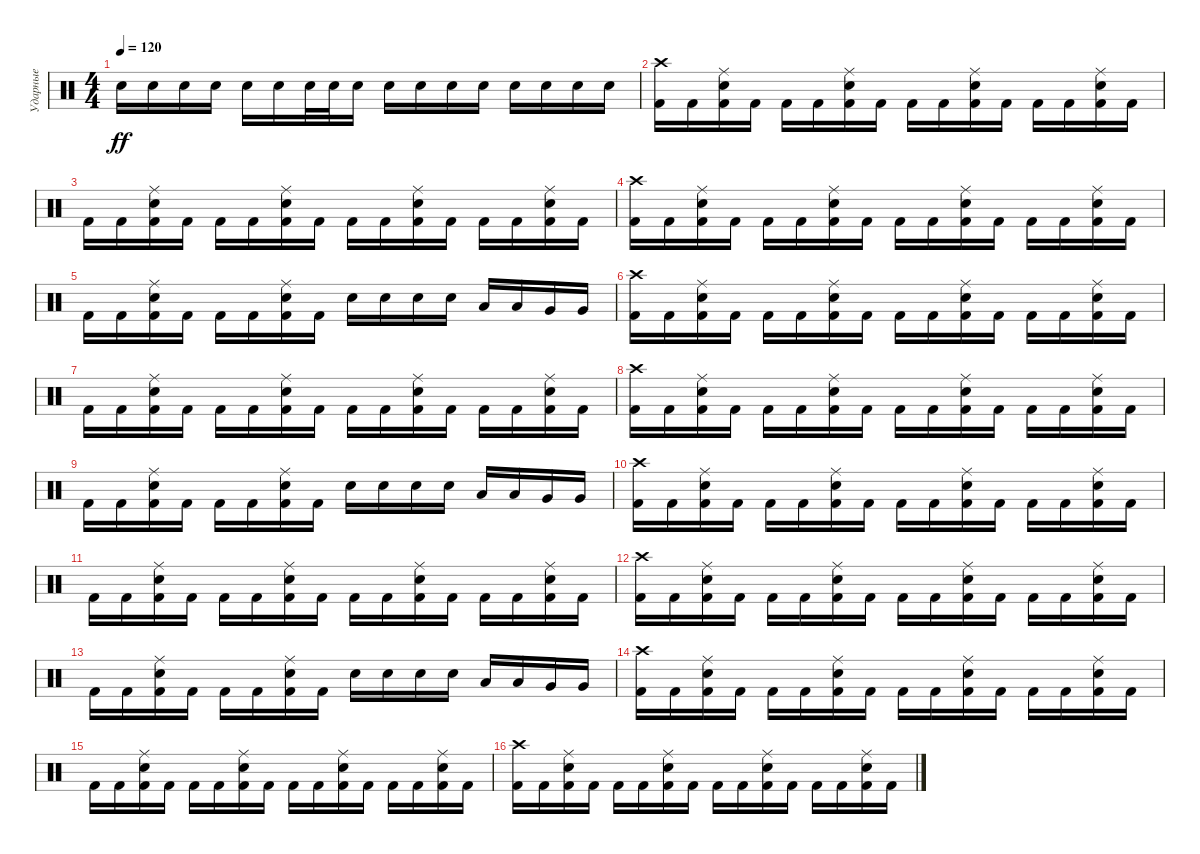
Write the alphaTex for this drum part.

\track ("Ударные" "Ударные") {instrument percussion}
\staff {score}
\articulation defaults
\ts (4 4)
\tempo 120
\clef neutral
\ks c "Electric Snare (hit)".16{dy ff} "Electric Snare (hit)".16 "Electric Snare (hit)".16 "Electric Snare (hit)".16 "Electric Snare (hit)".16 "Electric Snare (hit)".16 "Electric Snare (hit)".32 "Electric Snare (hit)".32 "Electric Snare (hit)".16 "Electric Snare (hit)".16 "Electric Snare (hit)".16 "Electric Snare (hit)".16 "Electric Snare (hit)".16 "Electric Snare (hit)".16 "Electric Snare (hit)".16 "Electric Snare (hit)".16 "Electric Snare (hit)".16
|
("Crash high (hit)" "Kick (hit) 2").16 "Kick (hit) 2".16 ("Ride (middle)" "Kick (hit) 2" "Electric Snare (hit)").16 "Kick (hit) 2".16 "Kick (hit) 2".16 "Kick (hit) 2".16 ("Ride (middle)" "Kick (hit) 2" "Electric Snare (hit)").16 "Kick (hit) 2".16 "Kick (hit) 2".16 "Kick (hit) 2".16 ("Ride (middle)" "Kick (hit) 2" "Electric Snare (hit)").16 "Kick (hit) 2".16 "Kick (hit) 2".16 "Kick (hit) 2".16 ("Ride (middle)" "Kick (hit) 2" "Electric Snare (hit)").16 "Kick (hit) 2".16 |
"Kick (hit) 2".16 "Kick (hit) 2".16 ("Ride (middle)" "Kick (hit) 2" "Electric Snare (hit)").16 "Kick (hit) 2".16 "Kick (hit) 2".16 "Kick (hit) 2".16 ("Ride (middle)" "Kick (hit) 2" "Electric Snare (hit)").16 "Kick (hit) 2".16 "Kick (hit) 2".16 "Kick (hit) 2".16 ("Ride (middle)" "Kick (hit) 2" "Electric Snare (hit)").16 "Kick (hit) 2".16 "Kick (hit) 2".16 "Kick (hit) 2".16 ("Ride (middle)" "Kick (hit) 2" "Electric Snare (hit)").16 "Kick (hit) 2".16 |
("Crash high (hit)" "Kick (hit) 2").16 "Kick (hit) 2".16 ("Ride (middle)" "Kick (hit) 2" "Electric Snare (hit)").16 "Kick (hit) 2".16 "Kick (hit) 2".16 "Kick (hit) 2".16 ("Ride (middle)" "Kick (hit) 2" "Electric Snare (hit)").16 "Kick (hit) 2".16 "Kick (hit) 2".16 "Kick (hit) 2".16 ("Ride (middle)" "Kick (hit) 2" "Electric Snare (hit)").16 "Kick (hit) 2".16 "Kick (hit) 2".16 "Kick (hit) 2".16 ("Ride (middle)" "Kick (hit) 2" "Electric Snare (hit)").16 "Kick (hit) 2".16 |
"Kick (hit) 2".16 "Kick (hit) 2".16 ("Ride (middle)" "Kick (hit) 2" "Electric Snare (hit)").16 "Kick (hit) 2".16 "Kick (hit) 2".16 "Kick (hit) 2".16 ("Ride (middle)" "Kick (hit) 2" "Electric Snare (hit)").16 "Kick (hit) 2".16 "Electric Snare (hit)".16 "Electric Snare (hit)".16 "Electric Snare (hit)".16 "Electric Snare (hit)".16 "Low Tom (hit)".16 "Low Tom (hit)".16 "Very Low Tom (hit)".16 "Very Low Tom (hit)".16 |
("Crash high (hit)" "Kick (hit) 2").16 "Kick (hit) 2".16 ("Ride (middle)" "Kick (hit) 2" "Electric Snare (hit)").16 "Kick (hit) 2".16 "Kick (hit) 2".16 "Kick (hit) 2".16 ("Ride (middle)" "Kick (hit) 2" "Electric Snare (hit)").16 "Kick (hit) 2".16 "Kick (hit) 2".16 "Kick (hit) 2".16 ("Ride (middle)" "Kick (hit) 2" "Electric Snare (hit)").16 "Kick (hit) 2".16 "Kick (hit) 2".16 "Kick (hit) 2".16 ("Ride (middle)" "Kick (hit) 2" "Electric Snare (hit)").16 "Kick (hit) 2".16 |
"Kick (hit) 2".16 "Kick (hit) 2".16 ("Ride (middle)" "Kick (hit) 2" "Electric Snare (hit)").16 "Kick (hit) 2".16 "Kick (hit) 2".16 "Kick (hit) 2".16 ("Ride (middle)" "Kick (hit) 2" "Electric Snare (hit)").16 "Kick (hit) 2".16 "Kick (hit) 2".16 "Kick (hit) 2".16 ("Ride (middle)" "Kick (hit) 2" "Electric Snare (hit)").16 "Kick (hit) 2".16 "Kick (hit) 2".16 "Kick (hit) 2".16 ("Ride (middle)" "Kick (hit) 2" "Electric Snare (hit)").16 "Kick (hit) 2".16 |
("Crash high (hit)" "Kick (hit) 2").16 "Kick (hit) 2".16 ("Ride (middle)" "Kick (hit) 2" "Electric Snare (hit)").16 "Kick (hit) 2".16 "Kick (hit) 2".16 "Kick (hit) 2".16 ("Ride (middle)" "Kick (hit) 2" "Electric Snare (hit)").16 "Kick (hit) 2".16 "Kick (hit) 2".16 "Kick (hit) 2".16 ("Ride (middle)" "Kick (hit) 2" "Electric Snare (hit)").16 "Kick (hit) 2".16 "Kick (hit) 2".16 "Kick (hit) 2".16 ("Ride (middle)" "Kick (hit) 2" "Electric Snare (hit)").16 "Kick (hit) 2".16 |
"Kick (hit) 2".16 "Kick (hit) 2".16 ("Ride (middle)" "Kick (hit) 2" "Electric Snare (hit)").16 "Kick (hit) 2".16 "Kick (hit) 2".16 "Kick (hit) 2".16 ("Ride (middle)" "Kick (hit) 2" "Electric Snare (hit)").16 "Kick (hit) 2".16 "Electric Snare (hit)".16 "Electric Snare (hit)".16 "Electric Snare (hit)".16 "Electric Snare (hit)".16 "Low Tom (hit)".16 "Low Tom (hit)".16 "Very Low Tom (hit)".16 "Very Low Tom (hit)".16 |
("Crash high (hit)" "Kick (hit) 2").16 "Kick (hit) 2".16 ("Ride (middle)" "Kick (hit) 2" "Electric Snare (hit)").16 "Kick (hit) 2".16 "Kick (hit) 2".16 "Kick (hit) 2".16 ("Ride (middle)" "Kick (hit) 2" "Electric Snare (hit)").16 "Kick (hit) 2".16 "Kick (hit) 2".16 "Kick (hit) 2".16 ("Ride (middle)" "Kick (hit) 2" "Electric Snare (hit)").16 "Kick (hit) 2".16 "Kick (hit) 2".16 "Kick (hit) 2".16 ("Ride (middle)" "Kick (hit) 2" "Electric Snare (hit)").16 "Kick (hit) 2".16 |
"Kick (hit) 2".16 "Kick (hit) 2".16 ("Ride (middle)" "Kick (hit) 2" "Electric Snare (hit)").16 "Kick (hit) 2".16 "Kick (hit) 2".16 "Kick (hit) 2".16 ("Ride (middle)" "Kick (hit) 2" "Electric Snare (hit)").16 "Kick (hit) 2".16 "Kick (hit) 2".16 "Kick (hit) 2".16 ("Ride (middle)" "Kick (hit) 2" "Electric Snare (hit)").16 "Kick (hit) 2".16 "Kick (hit) 2".16 "Kick (hit) 2".16 ("Ride (middle)" "Kick (hit) 2" "Electric Snare (hit)").16 "Kick (hit) 2".16 |
("Crash high (hit)" "Kick (hit) 2").16 "Kick (hit) 2".16 ("Ride (middle)" "Kick (hit) 2" "Electric Snare (hit)").16 "Kick (hit) 2".16 "Kick (hit) 2".16 "Kick (hit) 2".16 ("Ride (middle)" "Kick (hit) 2" "Electric Snare (hit)").16 "Kick (hit) 2".16 "Kick (hit) 2".16 "Kick (hit) 2".16 ("Ride (middle)" "Kick (hit) 2" "Electric Snare (hit)").16 "Kick (hit) 2".16 "Kick (hit) 2".16 "Kick (hit) 2".16 ("Ride (middle)" "Kick (hit) 2" "Electric Snare (hit)").16 "Kick (hit) 2".16 |
"Kick (hit) 2".16 "Kick (hit) 2".16 ("Ride (middle)" "Kick (hit) 2" "Electric Snare (hit)").16 "Kick (hit) 2".16 "Kick (hit) 2".16 "Kick (hit) 2".16 ("Ride (middle)" "Kick (hit) 2" "Electric Snare (hit)").16 "Kick (hit) 2".16 "Electric Snare (hit)".16 "Electric Snare (hit)".16 "Electric Snare (hit)".16 "Electric Snare (hit)".16 "Low Tom (hit)".16 "Low Tom (hit)".16 "Very Low Tom (hit)".16 "Very Low Tom (hit)".16 |
("Crash high (hit)" "Kick (hit) 2").16 "Kick (hit) 2".16 ("Ride (middle)" "Kick (hit) 2" "Electric Snare (hit)").16 "Kick (hit) 2".16 "Kick (hit) 2".16 "Kick (hit) 2".16 ("Ride (middle)" "Kick (hit) 2" "Electric Snare (hit)").16 "Kick (hit) 2".16 "Kick (hit) 2".16 "Kick (hit) 2".16 ("Ride (middle)" "Kick (hit) 2" "Electric Snare (hit)").16 "Kick (hit) 2".16 "Kick (hit) 2".16 "Kick (hit) 2".16 ("Ride (middle)" "Kick (hit) 2" "Electric Snare (hit)").16 "Kick (hit) 2".16 |
"Kick (hit) 2".16 "Kick (hit) 2".16 ("Ride (middle)" "Kick (hit) 2" "Electric Snare (hit)").16 "Kick (hit) 2".16 "Kick (hit) 2".16 "Kick (hit) 2".16 ("Ride (middle)" "Kick (hit) 2" "Electric Snare (hit)").16 "Kick (hit) 2".16 "Kick (hit) 2".16 "Kick (hit) 2".16 ("Ride (middle)" "Kick (hit) 2" "Electric Snare (hit)").16 "Kick (hit) 2".16 "Kick (hit) 2".16 "Kick (hit) 2".16 ("Ride (middle)" "Kick (hit) 2" "Electric Snare (hit)").16 "Kick (hit) 2".16 |
("Crash high (hit)" "Kick (hit) 2").16 "Kick (hit) 2".16 ("Ride (middle)" "Kick (hit) 2" "Electric Snare (hit)").16 "Kick (hit) 2".16 "Kick (hit) 2".16 "Kick (hit) 2".16 ("Ride (middle)" "Kick (hit) 2" "Electric Snare (hit)").16 "Kick (hit) 2".16 "Kick (hit) 2".16 "Kick (hit) 2".16 ("Ride (middle)" "Kick (hit) 2" "Electric Snare (hit)").16 "Kick (hit) 2".16 "Kick (hit) 2".16 "Kick (hit) 2".16 ("Ride (middle)" "Kick (hit) 2" "Electric Snare (hit)").16 "Kick (hit) 2".16
